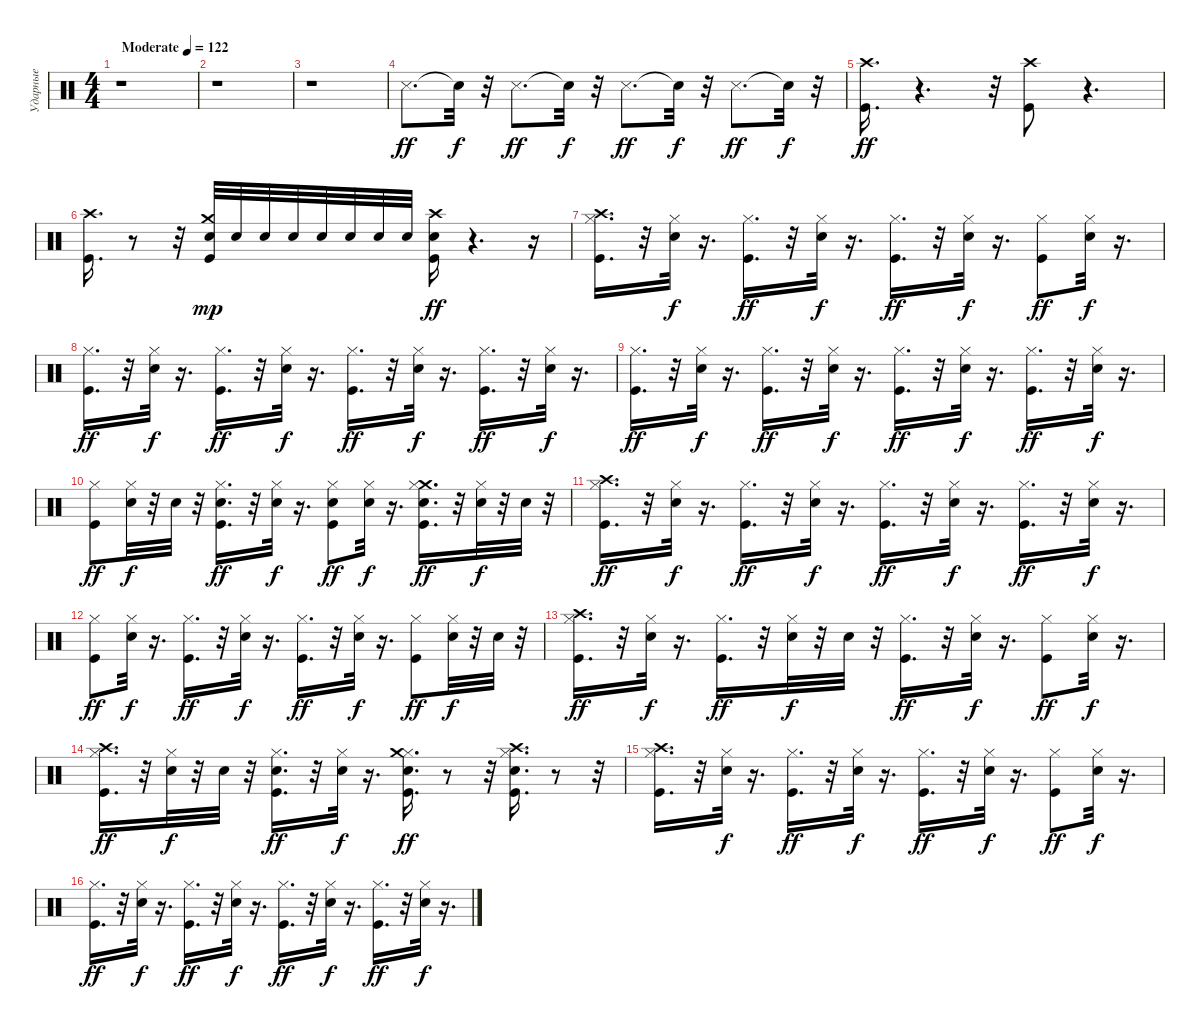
\track ("Ударные" "Ударные") {instrument percussion}
\staff {score}
\articulation defaults
\ts (4 4)
\tempo (122 "Moderate")
\clef neutral
\ks c
r.1{dy ff} |
r.1 |
r.1 |
"Snare (side stick) 3".8{d} "Snare (hit)"{t}.32{dy f} r.32 "Snare (side stick) 3".8{d dy ff} "Snare (hit)"{t}.32{dy f} r.32 "Snare (side stick) 3".8{d dy ff} "Snare (hit)"{t}.32{dy f} r.32 "Snare (side stick) 3".8{d dy ff} "Snare (hit)"{t}.32{dy f} r.32 |
("Crash high (hit)" "Kick (hit)").16{d dy ff} r.4{d} r.32 ("Kick (hit)" "Crash high (hit)").8 r.4{d} |
("Crash high (hit)" "Kick (hit)").16{d} r.8 r.32 ("Crash medium (hit)" "Kick (hit)" "Electric Snare (hit)").32{dy mp} "Electric Snare (hit)".32 "Electric Snare (hit)".32 "Electric Snare (hit)".32 "Electric Snare (hit)".32 "Electric Snare (hit)".32 "Electric Snare (hit)".32 "Electric Snare (hit)".32 ("Electric Snare (hit)" "Crash high (hit)" "Kick (hit)").16{dy ff} r.4{d} r.16 |
("Kick (hit)" "Hi-Hat (closed)" "Crash high (hit)").16{d} r.32 ("Electric Snare (hit)" "Hi-Hat (closed)").32{dy f} r.16{d} ("Hi-Hat (closed)" "Kick (hit)").16{d dy ff} r.32 ("Electric Snare (hit)" "Hi-Hat (closed)").32{dy f} r.16{d} ("Hi-Hat (closed)" "Kick (hit)").16{d dy ff} r.32 ("Electric Snare (hit)" "Hi-Hat (closed)").32{dy f} r.16{d} ("Hi-Hat (closed)" "Kick (hit)").8{dy ff} ("Hi-Hat (closed)" "Electric Snare (hit)").32{dy f} r.16{d} |
("Kick (hit)" "Hi-Hat (closed)").16{d dy ff} r.32 ("Hi-Hat (closed)" "Electric Snare (hit)").32{dy f} r.16{d} ("Kick (hit)" "Hi-Hat (closed)").16{d dy ff} r.32 ("Hi-Hat (closed)" "Electric Snare (hit)").32{dy f} r.16{d} ("Hi-Hat (closed)" "Kick (hit)").16{d dy ff} r.32 ("Hi-Hat (closed)" "Electric Snare (hit)").32{dy f} r.16{d} ("Hi-Hat (closed)" "Kick (hit)").16{d dy ff} r.32 ("Hi-Hat (closed)" "Electric Snare (hit)").32{dy f} r.16{d} |
("Hi-Hat (closed)" "Kick (hit)").16{d dy ff} r.32 ("Hi-Hat (closed)" "Electric Snare (hit)").32{dy f} r.16{d} ("Hi-Hat (closed)" "Kick (hit)").16{d dy ff} r.32 ("Hi-Hat (closed)" "Electric Snare (hit)").32{dy f} r.16{d} ("Kick (hit)" "Hi-Hat (closed)").16{d dy ff} r.32 ("Hi-Hat (closed)" "Electric Snare (hit)").32{dy f} r.16{d} ("Hi-Hat (closed)" "Kick (hit)").16{d dy ff} r.32 ("Hi-Hat (closed)" "Electric Snare (hit)").32{dy f} r.16{d} |
("Kick (hit)" "Hi-Hat (closed)").8{dy ff} ("Electric Snare (hit)" "Hi-Hat (closed)").32{dy f} r.32 "Electric Snare (hit)".32 r.32 ("Electric Snare (hit)" "Kick (hit)" "Hi-Hat (closed)").16{d dy ff} r.32 ("Electric Snare (hit)" "Hi-Hat (closed)").32{dy f} r.16{d} ("Electric Snare (hit)" "Kick (hit)" "Hi-Hat (closed)").8{dy ff} ("Electric Snare (hit)" "Hi-Hat (closed)").32{dy f} r.16{d} ("Electric Snare (hit)" "Crash medium (hit)" "Kick (hit)" "Hi-Hat (closed)").16{d dy ff} r.32 ("Hi-Hat (closed)" "Electric Snare (hit)").32{dy f} r.32 "Electric Snare (hit)".32 r.32 |
("Crash high (hit)" "Kick (hit)" "Hi-Hat (closed)").16{d dy ff} r.32 ("Hi-Hat (closed)" "Electric Snare (hit)").32{dy f} r.16{d} ("Hi-Hat (closed)" "Kick (hit)").16{d dy ff} r.32 ("Electric Snare (hit)" "Hi-Hat (closed)").32{dy f} r.16{d} ("Kick (hit)" "Hi-Hat (closed)").16{d dy ff} r.32 ("Electric Snare (hit)" "Hi-Hat (closed)").32{dy f} r.16{d} ("Hi-Hat (closed)" "Kick (hit)").16{d dy ff} r.32 ("Hi-Hat (closed)" "Electric Snare (hit)").32{dy f} r.16{d} |
("Hi-Hat (closed)" "Kick (hit)").8{dy ff} ("Hi-Hat (closed)" "Electric Snare (hit)").32{dy f} r.16{d} ("Hi-Hat (closed)" "Kick (hit)").16{d dy ff} r.32 ("Hi-Hat (closed)" "Electric Snare (hit)").32{dy f} r.16{d} ("Kick (hit)" "Hi-Hat (closed)").16{d dy ff} r.32 ("Hi-Hat (closed)" "Electric Snare (hit)").32{dy f} r.16{d} ("Hi-Hat (closed)" "Kick (hit)").8{dy ff} ("Electric Snare (hit)" "Hi-Hat (closed)").32{dy f} r.32 "Electric Snare (hit)".32 r.32 |
("Crash high (hit)" "Kick (hit)" "Hi-Hat (closed)").16{d dy ff} r.32 ("Hi-Hat (closed)" "Electric Snare (hit)").32{dy f} r.16{d} ("Kick (hit)" "Hi-Hat (closed)").16{d dy ff} r.32 ("Hi-Hat (closed)" "Electric Snare (hit)").32{dy f} r.32 "Electric Snare (hit)".32 r.32 ("Kick (hit)" "Hi-Hat (closed)").16{d dy ff} r.32 ("Hi-Hat (closed)" "Electric Snare (hit)").32{dy f} r.16{d} ("Kick (hit)" "Hi-Hat (closed)").8{dy ff} ("Electric Snare (hit)" "Hi-Hat (closed)").32{dy f} r.16{d} |
("Kick (hit)" "Hi-Hat (closed)" "Crash high (hit)").16{d dy ff} r.32 ("Electric Snare (hit)" "Hi-Hat (closed)").32{dy f} r.32 "Electric Snare (hit)".32 r.32 ("Electric Snare (hit)" "Kick (hit)" "Hi-Hat (closed)").16{d dy ff} r.32 ("Electric Snare (hit)" "Hi-Hat (closed)").32{dy f} r.16{d} ("Electric Snare (hit)" "Kick (hit)" "Hi-Hat (closed)" "Crash medium (hit)").16{d dy ff} r.8 r.32 ("Hi-Hat (closed)" "Kick (hit)" "Crash high (hit)" "Electric Snare (hit)").16{d} r.8 r.32 |
("Kick (hit)" "Hi-Hat (closed)" "Crash high (hit)").16{d} r.32 ("Electric Snare (hit)" "Hi-Hat (closed)").32{dy f} r.16{d} ("Hi-Hat (closed)" "Kick (hit)").16{d dy ff} r.32 ("Electric Snare (hit)" "Hi-Hat (closed)").32{dy f} r.16{d} ("Hi-Hat (closed)" "Kick (hit)").16{d dy ff} r.32 ("Electric Snare (hit)" "Hi-Hat (closed)").32{dy f} r.16{d} ("Hi-Hat (closed)" "Kick (hit)").8{dy ff} ("Hi-Hat (closed)" "Electric Snare (hit)").32{dy f} r.16{d} |
("Kick (hit)" "Hi-Hat (closed)").16{d dy ff} r.32 ("Hi-Hat (closed)" "Electric Snare (hit)").32{dy f} r.16{d} ("Kick (hit)" "Hi-Hat (closed)").16{d dy ff} r.32 ("Hi-Hat (closed)" "Electric Snare (hit)").32{dy f} r.16{d} ("Hi-Hat (closed)" "Kick (hit)").16{d dy ff} r.32 ("Hi-Hat (closed)" "Electric Snare (hit)").32{dy f} r.16{d} ("Hi-Hat (closed)" "Kick (hit)").16{d dy ff} r.32 ("Hi-Hat (closed)" "Electric Snare (hit)").32{dy f} r.16{d}
